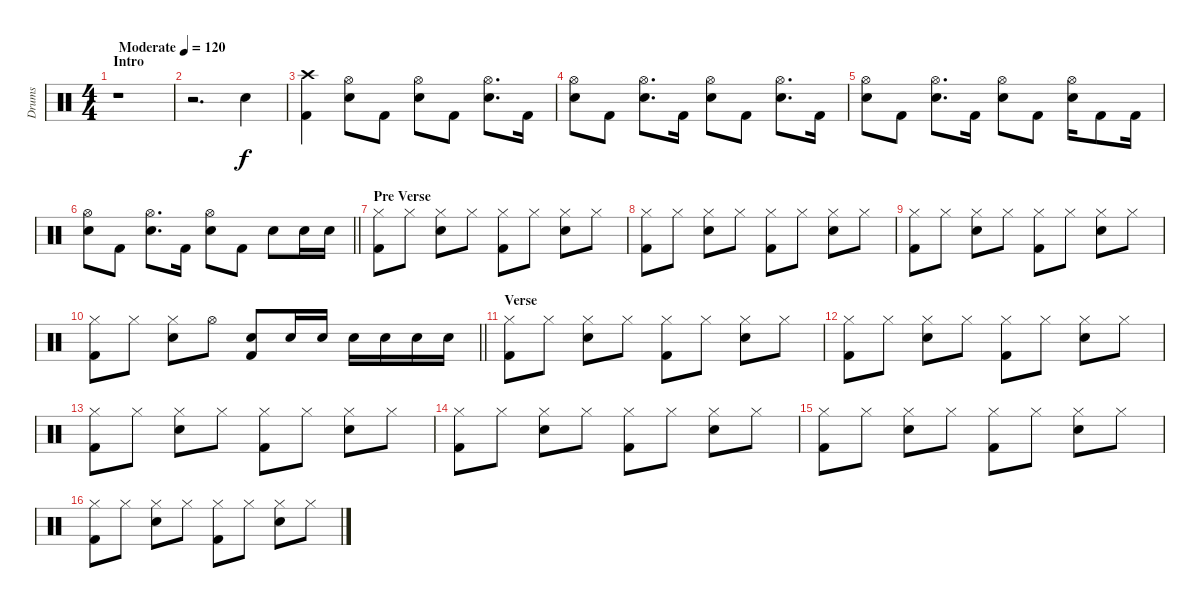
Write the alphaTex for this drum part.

\track ("Drums" "Drums") {instrument percussion}
\staff {score}
\articulation defaults
\ts (4 4)
\section ("" "Intro")
\tempo (120 "Moderate")
\clef neutral
\ks c
r.1{dy f} |
r.2{d} "Snare (hit) 2".4 |
("Crash high (hit)" "Kick (hit) 2").4 ("Hi-Hat (open)" "Snare (hit) 2").8 "Kick (hit) 2".8 ("Hi-Hat (open)" "Snare (hit) 2").8 "Kick (hit) 2".8 ("Hi-Hat (open)" "Snare (hit) 2").8{d} "Kick (hit) 2".16 |
("Hi-Hat (open)" "Snare (hit) 2").8 "Kick (hit) 2".8 ("Hi-Hat (open)" "Snare (hit) 2").8{d} "Kick (hit) 2".16 ("Hi-Hat (open)" "Snare (hit) 2").8 "Kick (hit) 2".8 ("Hi-Hat (open)" "Snare (hit) 2").8{d} "Kick (hit) 2".16 |
("Hi-Hat (open)" "Snare (hit) 2").8 "Kick (hit) 2".8 ("Hi-Hat (open)" "Snare (hit) 2").8{d} "Kick (hit) 2".16 ("Hi-Hat (open)" "Snare (hit) 2").8 "Kick (hit) 2".8 ("Hi-Hat (open)" "Snare (hit) 2").16 "Kick (hit) 2".8 "Kick (hit) 2".16 |
\barLineRight lightlight
("Hi-Hat (open)" "Snare (hit) 2").8 "Kick (hit) 2".8 ("Hi-Hat (open)" "Snare (hit) 2").8{d} "Kick (hit) 2".16 ("Hi-Hat (open)" "Snare (hit) 2").8 "Kick (hit) 2".8 "Snare (hit) 2".8 "Snare (hit) 2".16 "Snare (hit) 2".16 |
\section ("" "Pre Verse")
("Hi-Hat (closed)" "Kick (hit) 2").8 "Hi-Hat (closed)".8 ("Hi-Hat (closed)" "Snare (hit) 2").8 "Hi-Hat (closed)".8 ("Hi-Hat (closed)" "Kick (hit) 2").8 "Hi-Hat (closed)".8 ("Hi-Hat (closed)" "Snare (hit) 2").8 "Hi-Hat (closed)".8 |
("Hi-Hat (closed)" "Kick (hit) 2").8 "Hi-Hat (closed)".8 ("Hi-Hat (closed)" "Snare (hit) 2").8 "Hi-Hat (closed)".8 ("Hi-Hat (closed)" "Kick (hit) 2").8 "Hi-Hat (closed)".8 ("Hi-Hat (closed)" "Snare (hit) 2").8 "Hi-Hat (closed)".8 |
("Hi-Hat (closed)" "Kick (hit) 2").8 "Hi-Hat (closed)".8 ("Hi-Hat (closed)" "Snare (hit) 2").8 "Hi-Hat (closed)".8 ("Hi-Hat (closed)" "Kick (hit) 2").8 "Hi-Hat (closed)".8 ("Hi-Hat (closed)" "Snare (hit) 2").8 "Hi-Hat (closed)".8 |
\barLineRight lightlight
("Hi-Hat (closed)" "Kick (hit) 2").8 "Hi-Hat (closed)".8 ("Hi-Hat (closed)" "Snare (hit) 2").8 "Hi-Hat (open)".8 ("Snare (hit) 2" "Kick (hit) 2").8 "Snare (hit) 2".16 "Snare (hit) 2".16 "Snare (hit) 2".16 "Snare (hit) 2".16 "Snare (hit) 2".16 "Snare (hit) 2".16 |
\section ("" "Verse")
("Hi-Hat (closed)" "Kick (hit) 2").8 "Hi-Hat (closed)".8 ("Hi-Hat (closed)" "Snare (hit) 2").8 "Hi-Hat (closed)".8 ("Hi-Hat (closed)" "Kick (hit) 2").8 "Hi-Hat (closed)".8 ("Hi-Hat (closed)" "Snare (hit) 2").8 "Hi-Hat (closed)".8 |
("Hi-Hat (closed)" "Kick (hit) 2").8 "Hi-Hat (closed)".8 ("Hi-Hat (closed)" "Snare (hit) 2").8 "Hi-Hat (closed)".8 ("Hi-Hat (closed)" "Kick (hit) 2").8 "Hi-Hat (closed)".8 ("Hi-Hat (closed)" "Snare (hit) 2").8 "Hi-Hat (closed)".8 |
("Hi-Hat (closed)" "Kick (hit) 2").8 "Hi-Hat (closed)".8 ("Hi-Hat (closed)" "Snare (hit) 2").8 "Hi-Hat (closed)".8 ("Hi-Hat (closed)" "Kick (hit) 2").8 "Hi-Hat (closed)".8 ("Hi-Hat (closed)" "Snare (hit) 2").8 "Hi-Hat (closed)".8 |
("Hi-Hat (closed)" "Kick (hit) 2").8 "Hi-Hat (closed)".8 ("Hi-Hat (closed)" "Snare (hit) 2").8 "Hi-Hat (closed)".8 ("Hi-Hat (closed)" "Kick (hit) 2").8 "Hi-Hat (closed)".8 ("Hi-Hat (closed)" "Snare (hit) 2").8 "Hi-Hat (closed)".8 |
("Hi-Hat (closed)" "Kick (hit) 2").8 "Hi-Hat (closed)".8 ("Hi-Hat (closed)" "Snare (hit) 2").8 "Hi-Hat (closed)".8 ("Hi-Hat (closed)" "Kick (hit) 2").8 "Hi-Hat (closed)".8 ("Hi-Hat (closed)" "Snare (hit) 2").8 "Hi-Hat (closed)".8 |
("Hi-Hat (closed)" "Kick (hit) 2").8 "Hi-Hat (closed)".8 ("Hi-Hat (closed)" "Snare (hit) 2").8 "Hi-Hat (closed)".8 ("Hi-Hat (closed)" "Kick (hit) 2").8 "Hi-Hat (closed)".8 ("Hi-Hat (closed)" "Snare (hit) 2").8 "Hi-Hat (closed)".8
